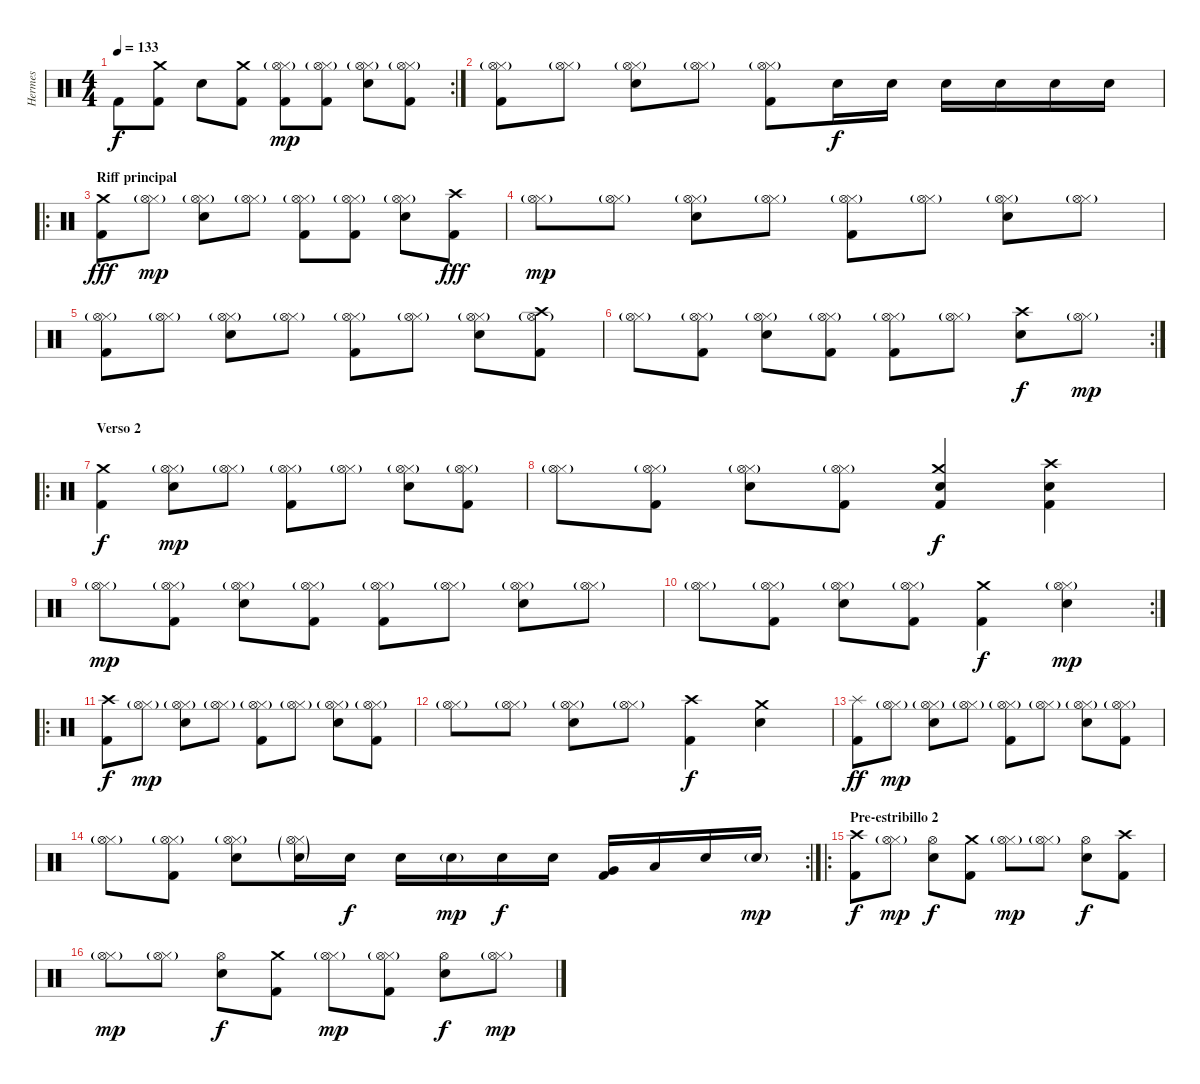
\track ("Hermes" "Hermes") {instrument percussion}
\staff {score}
\articulation defaults
\rc 2
\ts (4 4)
\tempo 133
\clef neutral
\ks c "Kick (hit) 2".8{dy f}
("Crash medium (hit)" "Kick (hit) 2").8 "Snare (hit) 2".8 ("Crash medium (hit)" "Kick (hit) 2").8 ("Hi-Hat (closed)" "Hi-Hat (open)"{g} "Kick (hit) 2").8{dy mp} ("Hi-Hat (closed)" "Hi-Hat (open)"{g} "Kick (hit) 2").8 ("Hi-Hat (closed)" "Hi-Hat (open)"{g} "Snare (hit) 2").8 ("Hi-Hat (closed)" "Hi-Hat (open)"{g} "Kick (hit) 2").8 |
("Hi-Hat (closed)" "Hi-Hat (open)"{g} "Kick (hit) 2").8 ("Hi-Hat (closed)" "Hi-Hat (open)"{g}).8 ("Hi-Hat (closed)" "Hi-Hat (open)"{g} "Snare (hit) 2").8 ("Hi-Hat (closed)" "Hi-Hat (open)"{g}).8 ("Hi-Hat (closed)" "Hi-Hat (open)"{g} "Kick (hit) 2").8 "Snare (hit) 2".16{dy f} "Snare (hit) 2".16 "Snare (hit) 2".16 "Snare (hit) 2".16 "Snare (hit) 2".16 "Snare (hit) 2".16 |
\ro
\section ("" "Riff principal")
("Crash medium (hit)" "Kick (hit) 2").8{dy fff} ("Hi-Hat (closed)" "Hi-Hat (open)"{g}).8{dy mp} ("Hi-Hat (closed)" "Hi-Hat (open)"{g} "Snare (hit) 2").8 ("Hi-Hat (closed)" "Hi-Hat (open)"{g}).8 ("Hi-Hat (closed)" "Hi-Hat (open)"{g} "Kick (hit) 2").8 ("Hi-Hat (closed)" "Hi-Hat (open)"{g} "Kick (hit) 2").8 ("Hi-Hat (closed)" "Hi-Hat (open)"{g} "Snare (hit) 2").8 ("Crash high (hit)" "Kick (hit) 2").8{dy fff} |
("Hi-Hat (closed)" "Hi-Hat (open)"{g}).8{dy mp} ("Hi-Hat (closed)" "Hi-Hat (open)"{g}).8 ("Hi-Hat (closed)" "Hi-Hat (open)"{g} "Snare (hit) 2").8 ("Hi-Hat (closed)" "Hi-Hat (open)"{g}).8 ("Hi-Hat (closed)" "Hi-Hat (open)"{g} "Kick (hit) 2").8 ("Hi-Hat (closed)" "Hi-Hat (open)"{g}).8 ("Hi-Hat (closed)" "Hi-Hat (open)"{g} "Snare (hit) 2").8 ("Hi-Hat (closed)" "Hi-Hat (open)"{g}).8 |
("Hi-Hat (closed)" "Hi-Hat (open)"{g} "Kick (hit) 2").8 ("Hi-Hat (closed)" "Hi-Hat (open)"{g}).8 ("Hi-Hat (closed)" "Hi-Hat (open)"{g} "Snare (hit) 2").8 ("Hi-Hat (closed)" "Hi-Hat (open)"{g}).8 ("Hi-Hat (closed)" "Hi-Hat (open)"{g} "Kick (hit) 2").8 ("Hi-Hat (closed)" "Hi-Hat (open)"{g}).8 ("Hi-Hat (closed)" "Hi-Hat (open)"{g} "Snare (hit) 2").8 ("Crash high (hit)" "Hi-Hat (open)"{g} "Kick (hit) 2").8 |
\rc 2
("Hi-Hat (closed)" "Hi-Hat (open)"{g}).8 ("Hi-Hat (closed)" "Hi-Hat (open)"{g} "Kick (hit) 2").8 ("Hi-Hat (closed)" "Hi-Hat (open)"{g} "Snare (hit) 2").8 ("Hi-Hat (closed)" "Hi-Hat (open)"{g} "Kick (hit) 2").8 ("Hi-Hat (closed)" "Hi-Hat (open)"{g} "Kick (hit) 2").8 ("Hi-Hat (closed)" "Hi-Hat (open)"{g}).8 ("Crash high (hit)" "Snare (hit) 2").8{dy f} ("Hi-Hat (closed)" "Hi-Hat (open)"{g}).8{dy mp} |
\ro
\section ("" "Verso 2")
("Crash medium (hit)" "Kick (hit) 2").4{dy f} ("Hi-Hat (closed)" "Hi-Hat (open)"{g} "Snare (hit) 2").8{dy mp} ("Hi-Hat (closed)" "Hi-Hat (open)"{g}).8 ("Hi-Hat (closed)" "Hi-Hat (open)"{g} "Kick (hit) 2").8 ("Hi-Hat (closed)" "Hi-Hat (open)"{g}).8 ("Hi-Hat (closed)" "Hi-Hat (open)"{g} "Snare (hit) 2").8 ("Hi-Hat (closed)" "Hi-Hat (open)"{g} "Kick (hit) 2").8 |
("Hi-Hat (closed)" "Hi-Hat (open)"{g}).8 ("Hi-Hat (closed)" "Hi-Hat (open)"{g} "Kick (hit) 2").8 ("Hi-Hat (closed)" "Hi-Hat (open)"{g} "Snare (hit) 2").8 ("Hi-Hat (closed)" "Hi-Hat (open)"{g} "Kick (hit) 2").8 ("Crash medium (hit)" "Snare (hit) 2" "Kick (hit) 2").4{dy f} ("Crash high (hit)" "Snare (hit) 2" "Kick (hit) 2").4 |
("Hi-Hat (closed)" "Hi-Hat (open)"{g}).8{dy mp} ("Hi-Hat (closed)" "Hi-Hat (open)"{g} "Kick (hit) 2").8 ("Hi-Hat (closed)" "Hi-Hat (open)"{g} "Snare (hit) 2").8 ("Hi-Hat (closed)" "Hi-Hat (open)"{g} "Kick (hit) 2").8 ("Hi-Hat (closed)" "Hi-Hat (open)"{g} "Kick (hit) 2").8 ("Hi-Hat (closed)" "Hi-Hat (open)"{g}).8 ("Hi-Hat (closed)" "Hi-Hat (open)"{g} "Snare (hit) 2").8 ("Hi-Hat (closed)" "Hi-Hat (open)"{g}).8 |
\rc 2
("Hi-Hat (closed)" "Hi-Hat (open)"{g}).8 ("Hi-Hat (closed)" "Hi-Hat (open)"{g} "Kick (hit) 2").8 ("Hi-Hat (closed)" "Hi-Hat (open)"{g} "Snare (hit) 2").8 ("Hi-Hat (closed)" "Hi-Hat (open)"{g} "Kick (hit) 2").8 ("Crash medium (hit)" "Kick (hit) 2").4{dy f} ("Hi-Hat (closed)" "Hi-Hat (open)"{g} "Snare (hit) 2").4{dy mp} |
\ro
("Crash high (hit)" "Kick (hit) 2").8{dy f} ("Hi-Hat (closed)" "Hi-Hat (open)"{g}).8{dy mp} ("Hi-Hat (closed)" "Hi-Hat (open)"{g} "Snare (hit) 2").8 ("Hi-Hat (closed)" "Hi-Hat (open)"{g}).8 ("Hi-Hat (closed)" "Hi-Hat (open)"{g} "Kick (hit) 2").8 ("Hi-Hat (closed)" "Hi-Hat (open)"{g}).8 ("Hi-Hat (closed)" "Hi-Hat (open)"{g} "Snare (hit) 2").8 ("Hi-Hat (closed)" "Hi-Hat (open)"{g} "Kick (hit) 2").8 |
("Hi-Hat (closed)" "Hi-Hat (open)"{g}).8 ("Hi-Hat (closed)" "Hi-Hat (open)"{g}).8 ("Hi-Hat (closed)" "Hi-Hat (open)"{g} "Snare (hit) 2").8 ("Hi-Hat (closed)" "Hi-Hat (open)"{g}).8 ("Crash high (hit)" "Kick (hit) 2").4{dy f} ("Crash medium (hit)" "Snare (hit) 2").4 |
("Splash (hit)" "Kick (hit) 2").8{dy ff} ("Hi-Hat (closed)" "Hi-Hat (open)"{g}).8{dy mp} ("Hi-Hat (closed)" "Hi-Hat (open)"{g} "Snare (hit) 2").8 ("Hi-Hat (closed)" "Hi-Hat (open)"{g}).8 ("Hi-Hat (closed)" "Hi-Hat (open)"{g} "Kick (hit) 2").8 ("Hi-Hat (closed)" "Hi-Hat (open)"{g}).8 ("Hi-Hat (closed)" "Hi-Hat (open)"{g} "Snare (hit) 2").8 ("Hi-Hat (closed)" "Hi-Hat (open)"{g} "Kick (hit) 2").8 |
\rc 2
("Hi-Hat (closed)" "Hi-Hat (open)"{g}).8 ("Hi-Hat (closed)" "Hi-Hat (open)"{g} "Kick (hit) 2").8 ("Hi-Hat (closed)" "Hi-Hat (open)"{g} "Snare (hit) 2").8 ("Hi-Hat (closed)" "Hi-Hat (open)"{g} "Snare (hit) 2"{g}).16 "Snare (hit) 2".16{dy f} "Snare (hit) 2".16 "Snare (hit) 2"{g}.16{dy mp} "Snare (hit) 2".16{dy f} "Snare (hit) 2".16 ("Very Low Tom (hit)" "Kick (hit) 2").16 "Low Floor Tom (hit)".16 "Snare (hit) 2".16 "Snare (hit) 2"{g}.16{dy mp} |
\ro
\section ("" "Pre-estribillo 2")
("Crash high (hit)" "Kick (hit) 2").8{dy f} ("Hi-Hat (closed)" "Hi-Hat (open)"{g}).8{dy mp} ("Hi-Hat (open)" "Snare (hit) 2").8{dy f} ("Crash medium (hit)" "Kick (hit) 2").8 ("Hi-Hat (closed)" "Hi-Hat (open)"{g}).8{dy mp} ("Hi-Hat (closed)" "Hi-Hat (open)"{g}).8 ("Hi-Hat (open)" "Snare (hit) 2").8{dy f} ("Crash high (hit)" "Kick (hit) 2").8 |
("Hi-Hat (closed)" "Hi-Hat (open)"{g}).8{dy mp} ("Hi-Hat (closed)" "Hi-Hat (open)"{g}).8 ("Hi-Hat (open)" "Snare (hit) 2").8{dy f} ("Crash medium (hit)" "Kick (hit) 2").8 ("Hi-Hat (closed)" "Hi-Hat (open)"{g}).8{dy mp} ("Hi-Hat (closed)" "Hi-Hat (open)"{g} "Kick (hit) 2").8 ("Hi-Hat (open)" "Snare (hit) 2").8{dy f} ("Hi-Hat (closed)" "Hi-Hat (open)"{g}).8{dy mp}
